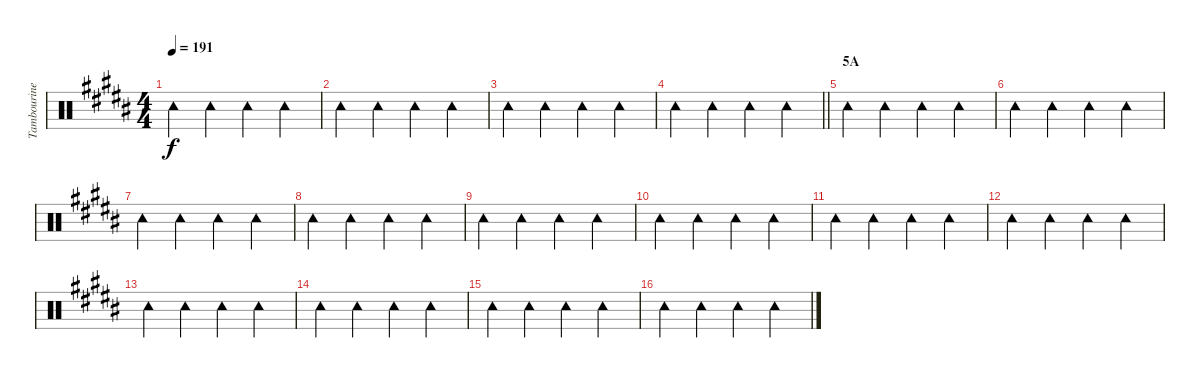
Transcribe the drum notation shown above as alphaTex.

\track ("Tambourine" "Tambourine") {instrument percussion}
\staff {score}
\articulation defaults
\ts (4 4)
\tempo 191
\clef neutral
\ks b "Tambourine (hit)".4{dy f} "Tambourine (hit)".4 "Tambourine (hit)".4 "Tambourine (hit)".4
|
"Tambourine (hit)".4 "Tambourine (hit)".4 "Tambourine (hit)".4 "Tambourine (hit)".4 |
"Tambourine (hit)".4 "Tambourine (hit)".4 "Tambourine (hit)".4 "Tambourine (hit)".4 |
\barLineRight lightlight "Tambourine (hit)".4 "Tambourine (hit)".4 "Tambourine (hit)".4 "Tambourine (hit)".4
|
\section ("" "5A")
"Tambourine (hit)".4 "Tambourine (hit)".4 "Tambourine (hit)".4 "Tambourine (hit)".4 |
"Tambourine (hit)".4 "Tambourine (hit)".4 "Tambourine (hit)".4 "Tambourine (hit)".4 |
"Tambourine (hit)".4 "Tambourine (hit)".4 "Tambourine (hit)".4 "Tambourine (hit)".4 |
"Tambourine (hit)".4 "Tambourine (hit)".4 "Tambourine (hit)".4 "Tambourine (hit)".4 |
"Tambourine (hit)".4 "Tambourine (hit)".4 "Tambourine (hit)".4 "Tambourine (hit)".4 |
"Tambourine (hit)".4 "Tambourine (hit)".4 "Tambourine (hit)".4 "Tambourine (hit)".4 |
"Tambourine (hit)".4 "Tambourine (hit)".4 "Tambourine (hit)".4 "Tambourine (hit)".4 |
"Tambourine (hit)".4 "Tambourine (hit)".4 "Tambourine (hit)".4 "Tambourine (hit)".4 |
"Tambourine (hit)".4 "Tambourine (hit)".4 "Tambourine (hit)".4 "Tambourine (hit)".4 |
"Tambourine (hit)".4 "Tambourine (hit)".4 "Tambourine (hit)".4 "Tambourine (hit)".4 |
"Tambourine (hit)".4 "Tambourine (hit)".4 "Tambourine (hit)".4 "Tambourine (hit)".4 |
"Tambourine (hit)".4 "Tambourine (hit)".4 "Tambourine (hit)".4 "Tambourine (hit)".4
